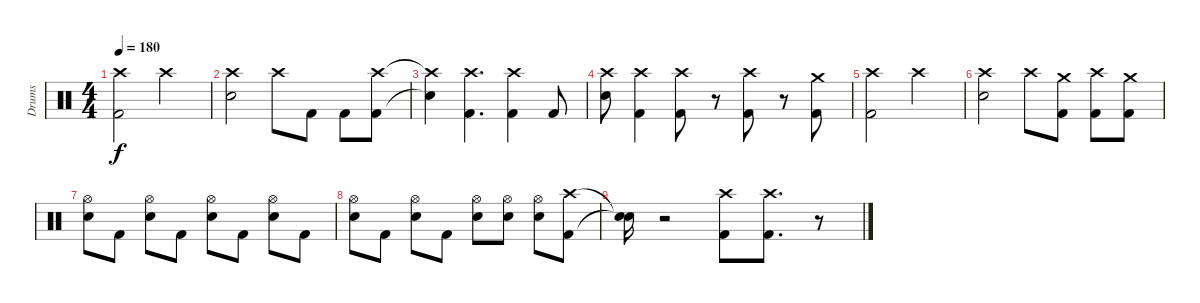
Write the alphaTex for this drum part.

\track ("Drums" "Drums") {instrument percussion}
\staff {score}
\articulation defaults
\ts (4 4)
\tempo 180
\clef neutral
\ks c
("Crash high (hit)" "Kick (hit) 2").2{dy f} "Crash high (hit)".2 |
("Crash high (hit)" "Electric Snare (hit)").2 "Crash high (hit)".8 "Kick (hit) 2".8 "Kick (hit) 2".8 ("Crash high (hit)" "Kick (hit) 2").8 |
("Crash high (hit)"{t} "Snare (hit)"{t}).4 ("Crash high (hit)" "Kick (hit) 2").4{d} ("Crash high (hit)" "Kick (hit) 2").4 "Kick (hit) 2".8 |
("Crash high (hit)" "Electric Snare (hit)").8 ("Crash high (hit)" "Kick (hit) 2").4 ("Crash high (hit)" "Kick (hit) 2").8 r.8{volume 0} ("Crash high (hit)" "Kick (hit) 2").8{volume 16} r.8{volume 0} ("Crash medium (hit)" "Kick (hit) 2").8{volume 16} |
("Crash high (hit)" "Kick (hit) 2").2 "Crash high (hit)".2 |
("Crash high (hit)" "Electric Snare (hit)").2 "Crash high (hit)".8 ("Crash medium (hit)" "Kick (hit) 2").8 ("Crash high (hit)" "Kick (hit) 2").8 ("Crash medium (hit)" "Kick (hit) 2").8 |
("Hi-Hat (open)" "Electric Snare (hit)").8 "Kick (hit) 2".8 ("Hi-Hat (open)" "Electric Snare (hit)").8 "Kick (hit) 2".8 ("Hi-Hat (open)" "Electric Snare (hit)").8 "Kick (hit) 2".8 ("Hi-Hat (open)" "Electric Snare (hit)").8 "Kick (hit) 2".8 |
("Hi-Hat (open)" "Electric Snare (hit)").8 "Kick (hit) 2".8 ("Hi-Hat (open)" "Electric Snare (hit)").8 "Kick (hit) 2".8 ("Hi-Hat (open)" "Electric Snare (hit)").8 ("Hi-Hat (open)" "Electric Snare (hit)").8 ("Hi-Hat (open)" "Electric Snare (hit)").8 ("Crash high (hit)" "Kick (hit) 2").8 |
("Snare (hit)"{t} "Snare (hit)"{t}).16 r.2{volume 0} ("Crash high (hit)" "Kick (hit) 2").8{volume 16} ("Crash high (hit)" "Kick (hit) 2").8{d} r.8{volume 0}
